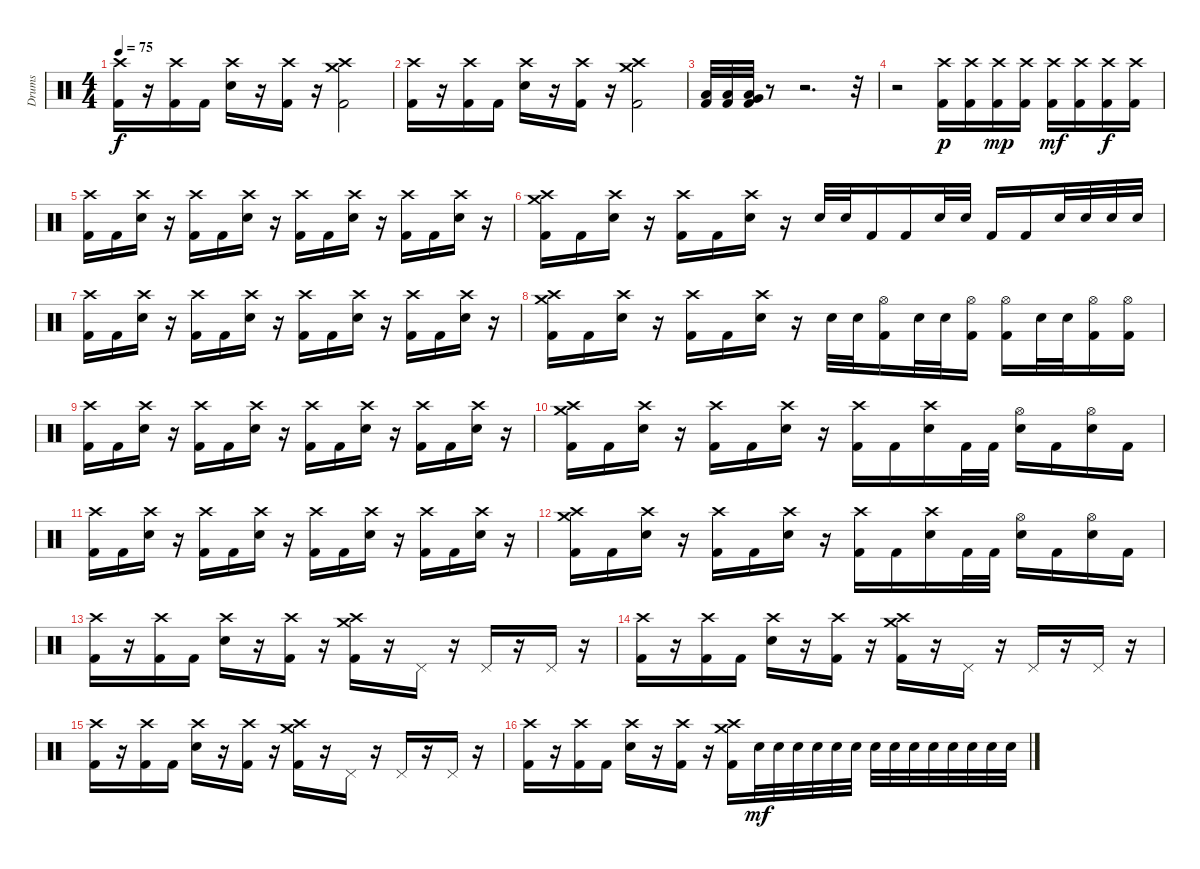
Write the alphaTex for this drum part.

\track ("Drums" "Drums") {instrument percussion}
\staff {score}
\articulation defaults
\ts (4 4)
\tempo 75
\clef neutral
\ks c
("Crash high (hit)" "Kick (hit) 2").16{dy f} r.16 ("Crash high (hit)" "Kick (hit) 2").16 "Kick (hit) 2".16 ("Crash high (hit)" "Electric Snare (hit)").16 r.16 ("Crash high (hit)" "Kick (hit) 2").16 r.16 ("Crash medium (hit)" "Crash high (hit)" "Kick (hit) 2").2 |
("Crash high (hit)" "Kick (hit) 2").16 r.16 ("Crash high (hit)" "Kick (hit) 2").16 "Kick (hit) 2".16 ("Crash high (hit)" "Electric Snare (hit)").16 r.16 ("Crash high (hit)" "Kick (hit) 2").16 r.16 ("Crash medium (hit)" "Crash high (hit)" "Kick (hit) 2").2 |
("Low Floor Tom (hit)" "Kick (hit) 2").32 ("Low Floor Tom (hit)" "Kick (hit) 2").32 ("Very Low Tom (hit)" "Low Floor Tom (hit)" "Kick (hit) 2").32 r.8 r.2{d} r.32 |
r.2 ("Crash high (hit)" "Kick (hit) 2").16{dy p} ("Crash high (hit)" "Kick (hit) 2").16 ("Crash high (hit)" "Kick (hit) 2").16{dy mp} ("Crash high (hit)" "Kick (hit) 2").16 ("Crash high (hit)" "Kick (hit) 2").16{dy mf} ("Crash high (hit)" "Kick (hit) 2").16 ("Crash high (hit)" "Kick (hit) 2").16{dy f} ("Crash high (hit)" "Kick (hit) 2").16 |
("Crash high (hit)" "Kick (hit) 2").16 "Kick (hit) 2".16 ("Crash high (hit)" "Electric Snare (hit)").16 r.16 ("Crash high (hit)" "Kick (hit) 2").16 "Kick (hit) 2".16 ("Crash high (hit)" "Electric Snare (hit)").16 r.16 ("Crash high (hit)" "Kick (hit) 2").16 "Kick (hit) 2".16 ("Crash high (hit)" "Electric Snare (hit)").16 r.16 ("Crash high (hit)" "Kick (hit) 2").16 "Kick (hit) 2".16 ("Crash high (hit)" "Electric Snare (hit)").16 r.16 |
("Crash high (hit)" "Crash medium (hit)" "Kick (hit) 2").16 "Kick (hit) 2".16 ("Crash high (hit)" "Electric Snare (hit)").16 r.16 ("Crash high (hit)" "Kick (hit) 2").16 "Kick (hit) 2".16 ("Crash high (hit)" "Electric Snare (hit)").16 r.16 "Electric Snare (hit)".32 "Electric Snare (hit)".32 "Kick (hit) 2".16 "Kick (hit) 2".16 "Electric Snare (hit)".32 "Electric Snare (hit)".32 "Kick (hit) 2".16 "Kick (hit) 2".16 "Electric Snare (hit)".32 "Electric Snare (hit)".32 "Electric Snare (hit)".32 "Electric Snare (hit)".32 |
("Crash high (hit)" "Kick (hit) 2").16 "Kick (hit) 2".16 ("Crash high (hit)" "Electric Snare (hit)").16 r.16 ("Crash high (hit)" "Kick (hit) 2").16 "Kick (hit) 2".16 ("Crash high (hit)" "Electric Snare (hit)").16 r.16 ("Crash high (hit)" "Kick (hit) 2").16 "Kick (hit) 2".16 ("Crash high (hit)" "Electric Snare (hit)").16 r.16 ("Crash high (hit)" "Kick (hit) 2").16 "Kick (hit) 2".16 ("Crash high (hit)" "Electric Snare (hit)").16 r.16 |
("Crash high (hit)" "Crash medium (hit)" "Kick (hit) 2").16 "Kick (hit) 2".16 ("Crash high (hit)" "Electric Snare (hit)").16 r.16 ("Crash high (hit)" "Kick (hit) 2").16 "Kick (hit) 2".16 ("Crash high (hit)" "Electric Snare (hit)").16 r.16 "Electric Snare (hit)".32 "Electric Snare (hit)".32 ("Hi-Hat (open)" "Kick (hit) 2").16 "Electric Snare (hit)".32 "Electric Snare (hit)".32 ("Hi-Hat (open)" "Kick (hit) 2").16 ("Hi-Hat (open)" "Kick (hit) 2").16 "Electric Snare (hit)".32 "Electric Snare (hit)".32 ("Hi-Hat (open)" "Kick (hit) 2").16 ("Hi-Hat (open)" "Kick (hit) 2").16 |
("Crash high (hit)" "Kick (hit) 2").16 "Kick (hit) 2".16 ("Crash high (hit)" "Electric Snare (hit)").16 r.16 ("Crash high (hit)" "Kick (hit) 2").16 "Kick (hit) 2".16 ("Crash high (hit)" "Electric Snare (hit)").16 r.16 ("Crash high (hit)" "Kick (hit) 2").16 "Kick (hit) 2".16 ("Crash high (hit)" "Electric Snare (hit)").16 r.16 ("Crash high (hit)" "Kick (hit) 2").16 "Kick (hit) 2".16 ("Crash high (hit)" "Electric Snare (hit)").16 r.16 |
("Crash high (hit)" "Crash medium (hit)" "Kick (hit) 2").16 "Kick (hit) 2".16 ("Crash high (hit)" "Electric Snare (hit)").16 r.16 ("Crash high (hit)" "Kick (hit) 2").16 "Kick (hit) 2".16 ("Crash high (hit)" "Electric Snare (hit)").16 r.16 ("Crash high (hit)" "Kick (hit) 2").16 "Kick (hit) 2".16 ("Crash high (hit)" "Electric Snare (hit)").16 "Kick (hit) 2".32 "Kick (hit) 2".32 ("Hi-Hat (open)" "Electric Snare (hit)").16 "Kick (hit) 2".16 ("Hi-Hat (open)" "Electric Snare (hit)").16 "Kick (hit) 2".16 |
("Crash high (hit)" "Kick (hit) 2").16 "Kick (hit) 2".16 ("Crash high (hit)" "Electric Snare (hit)").16 r.16 ("Crash high (hit)" "Kick (hit) 2").16 "Kick (hit) 2".16 ("Crash high (hit)" "Electric Snare (hit)").16 r.16 ("Crash high (hit)" "Kick (hit) 2").16 "Kick (hit) 2".16 ("Crash high (hit)" "Electric Snare (hit)").16 r.16 ("Crash high (hit)" "Kick (hit) 2").16 "Kick (hit) 2".16 ("Crash high (hit)" "Electric Snare (hit)").16 r.16 |
("Crash high (hit)" "Crash medium (hit)" "Kick (hit) 2").16 "Kick (hit) 2".16 ("Crash high (hit)" "Electric Snare (hit)").16 r.16 ("Crash high (hit)" "Kick (hit) 2").16 "Kick (hit) 2".16 ("Crash high (hit)" "Electric Snare (hit)").16 r.16 ("Crash high (hit)" "Kick (hit) 2").16 "Kick (hit) 2".16 ("Crash high (hit)" "Electric Snare (hit)").16 "Kick (hit) 2".32 "Kick (hit) 2".32 ("Hi-Hat (open)" "Electric Snare (hit)").16 "Kick (hit) 2".16 ("Hi-Hat (open)" "Electric Snare (hit)").16 "Kick (hit) 2".16 |
("Crash high (hit)" "Kick (hit) 2").16 r.16 ("Crash high (hit)" "Kick (hit) 2").16 "Kick (hit) 2".16 ("Crash high (hit)" "Electric Snare (hit)").16 r.16 ("Crash high (hit)" "Kick (hit) 2").16 r.16 ("Crash medium (hit)" "Crash high (hit)" "Kick (hit) 2").16 r.16 "Pedal Hi-Hat (hit)".16 r.16 "Pedal Hi-Hat (hit)".16 r.16 "Pedal Hi-Hat (hit)".16 r.16 |
("Crash high (hit)" "Kick (hit) 2").16 r.16 ("Crash high (hit)" "Kick (hit) 2").16 "Kick (hit) 2".16 ("Crash high (hit)" "Electric Snare (hit)").16 r.16 ("Crash high (hit)" "Kick (hit) 2").16 r.16 ("Crash medium (hit)" "Crash high (hit)" "Kick (hit) 2").16 r.16 "Pedal Hi-Hat (hit)".16 r.16 "Pedal Hi-Hat (hit)".16 r.16 "Pedal Hi-Hat (hit)".16 r.16 |
("Crash high (hit)" "Kick (hit) 2").16 r.16 ("Crash high (hit)" "Kick (hit) 2").16 "Kick (hit) 2".16 ("Crash high (hit)" "Electric Snare (hit)").16 r.16 ("Crash high (hit)" "Kick (hit) 2").16 r.16 ("Crash medium (hit)" "Crash high (hit)" "Kick (hit) 2").16 r.16 "Pedal Hi-Hat (hit)".16 r.16 "Pedal Hi-Hat (hit)".16 r.16 "Pedal Hi-Hat (hit)".16 r.16 |
("Crash high (hit)" "Kick (hit) 2").16 r.16 ("Crash high (hit)" "Kick (hit) 2").16 "Kick (hit) 2".16 ("Crash high (hit)" "Electric Snare (hit)").16 r.16 ("Crash high (hit)" "Kick (hit) 2").16 r.16 ("Crash medium (hit)" "Crash high (hit)" "Kick (hit) 2").16 "Electric Snare (hit)".32{dy mf} "Electric Snare (hit)".32 "Electric Snare (hit)".32 "Electric Snare (hit)".32 "Electric Snare (hit)".32 "Electric Snare (hit)".32 "Electric Snare (hit)".32 "Electric Snare (hit)".32 "Electric Snare (hit)".32 "Electric Snare (hit)".32 "Electric Snare (hit)".32 "Electric Snare (hit)".32 "Electric Snare (hit)".32 "Electric Snare (hit)".32
